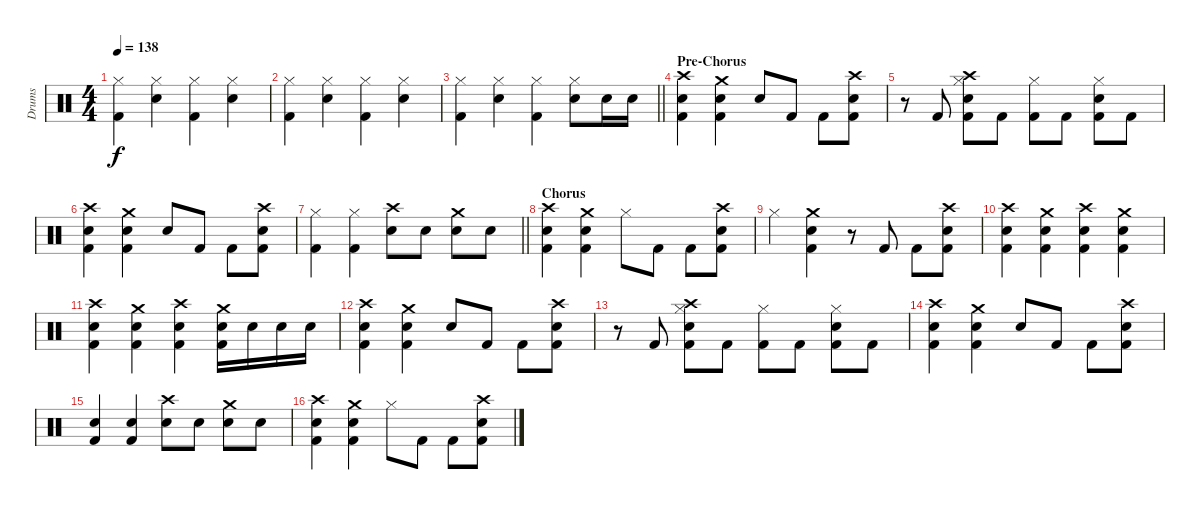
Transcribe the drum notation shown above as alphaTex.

\track ("Drums" "Drums") {instrument percussion}
\staff {score}
\articulation defaults
\ts (4 4)
\tempo 138
\clef neutral
\ks c
("Hi-Hat (closed)" "Kick (hit) 2").4{dy f} ("Snare (hit) 2" "Hi-Hat (closed)").4 ("Hi-Hat (closed)" "Kick (hit) 2").4 ("Snare (hit) 2" "Hi-Hat (closed)").4 |
("Hi-Hat (closed)" "Kick (hit) 2").4 ("Snare (hit) 2" "Hi-Hat (closed)").4 ("Hi-Hat (closed)" "Kick (hit) 2").4 ("Snare (hit) 2" "Hi-Hat (closed)").4 |
\barLineRight lightlight
("Hi-Hat (closed)" "Kick (hit) 2").4 ("Snare (hit) 2" "Hi-Hat (closed)").4 ("Hi-Hat (closed)" "Kick (hit) 2").4 ("Snare (hit) 2" "Hi-Hat (closed)").8 "Snare (hit) 2".16 "Snare (hit) 2".16 |
\section ("" "Pre-Chorus")
("Crash high (hit)" "Snare (hit) 2" "Kick (hit) 2").4 ("Crash medium (hit)" "Snare (hit) 2" "Kick (hit) 2").4 "Snare (hit) 2".8 "Kick (hit) 2".8 "Kick (hit) 2".8 ("Crash high (hit)" "Snare (hit) 2" "Kick (hit) 2").8 |
r.8 "Kick (hit) 2".8 ("Crash high (hit)" "Snare (hit) 2" "Hi-Hat (closed)" "Kick (hit) 2").8 "Kick (hit) 2".8 ("Hi-Hat (closed)" "Kick (hit) 2").8 "Kick (hit) 2".8 ("Snare (hit) 2" "Hi-Hat (closed)" "Kick (hit) 2").8 "Kick (hit) 2".8 |
("Crash high (hit)" "Snare (hit) 2" "Kick (hit) 2").4 ("Crash medium (hit)" "Snare (hit) 2" "Kick (hit) 2").4 "Snare (hit) 2".8 "Kick (hit) 2".8 "Kick (hit) 2".8 ("Crash high (hit)" "Snare (hit) 2" "Kick (hit) 2").8 |
\barLineRight lightlight
("Hi-Hat (closed)" "Kick (hit) 2").4 ("Hi-Hat (closed)" "Kick (hit) 2").4 ("Crash high (hit)" "Snare (hit) 2").8 "Snare (hit) 2".8 ("Crash medium (hit)" "Snare (hit) 2").8 "Snare (hit) 2".8 |
\section ("" "Chorus")
("Crash high (hit)" "Snare (hit) 2" "Kick (hit) 2").4 ("Crash medium (hit)" "Snare (hit) 2" "Kick (hit) 2").4 "Hi-Hat (closed)".8 "Kick (hit) 2".8 "Kick (hit) 2".8 ("Crash high (hit)" "Snare (hit) 2" "Kick (hit) 2").8 |
"Hi-Hat (closed)".4 ("Crash medium (hit)" "Snare (hit) 2" "Kick (hit) 2").4 r.8 "Kick (hit) 2".8 "Kick (hit) 2".8 ("Crash high (hit)" "Snare (hit) 2" "Kick (hit) 2").8 |
("Crash high (hit)" "Snare (hit) 2" "Kick (hit) 2").4 ("Crash medium (hit)" "Snare (hit) 2" "Kick (hit) 2").4 ("Crash high (hit)" "Snare (hit) 2" "Kick (hit) 2").4 ("Crash medium (hit)" "Snare (hit) 2" "Kick (hit) 2").4 |
("Crash high (hit)" "Snare (hit) 2" "Kick (hit) 2").4 ("Crash medium (hit)" "Snare (hit) 2" "Kick (hit) 2").4 ("Crash high (hit)" "Snare (hit) 2" "Kick (hit) 2").4 ("Crash medium (hit)" "Snare (hit) 2" "Kick (hit) 2").16 "Snare (hit) 2".16 "Snare (hit) 2".16 "Snare (hit) 2".16 |
("Crash high (hit)" "Snare (hit) 2" "Kick (hit) 2").4 ("Crash medium (hit)" "Snare (hit) 2" "Kick (hit) 2").4 "Snare (hit) 2".8 "Kick (hit) 2".8 "Kick (hit) 2".8 ("Crash high (hit)" "Snare (hit) 2" "Kick (hit) 2").8 |
r.8 "Kick (hit) 2".8 ("Crash high (hit)" "Snare (hit) 2" "Hi-Hat (closed)" "Kick (hit) 2").8 "Kick (hit) 2".8 ("Hi-Hat (closed)" "Kick (hit) 2").8 "Kick (hit) 2".8 ("Snare (hit) 2" "Hi-Hat (closed)" "Kick (hit) 2").8 "Kick (hit) 2".8 |
("Crash high (hit)" "Snare (hit) 2" "Kick (hit) 2").4 ("Crash medium (hit)" "Snare (hit) 2" "Kick (hit) 2").4 "Snare (hit) 2".8 "Kick (hit) 2".8 "Kick (hit) 2".8 ("Crash high (hit)" "Snare (hit) 2" "Kick (hit) 2").8 |
("Snare (hit) 2" "Kick (hit) 2").4 ("Snare (hit) 2" "Kick (hit) 2").4 ("Crash high (hit)" "Snare (hit) 2").8 "Snare (hit) 2".8 ("Crash medium (hit)" "Snare (hit) 2").8 "Snare (hit) 2".8 |
("Crash high (hit)" "Snare (hit) 2" "Kick (hit) 2").4 ("Crash medium (hit)" "Snare (hit) 2" "Kick (hit) 2").4 "Hi-Hat (closed)".8 "Kick (hit) 2".8 "Kick (hit) 2".8 ("Crash high (hit)" "Snare (hit) 2" "Kick (hit) 2").8
